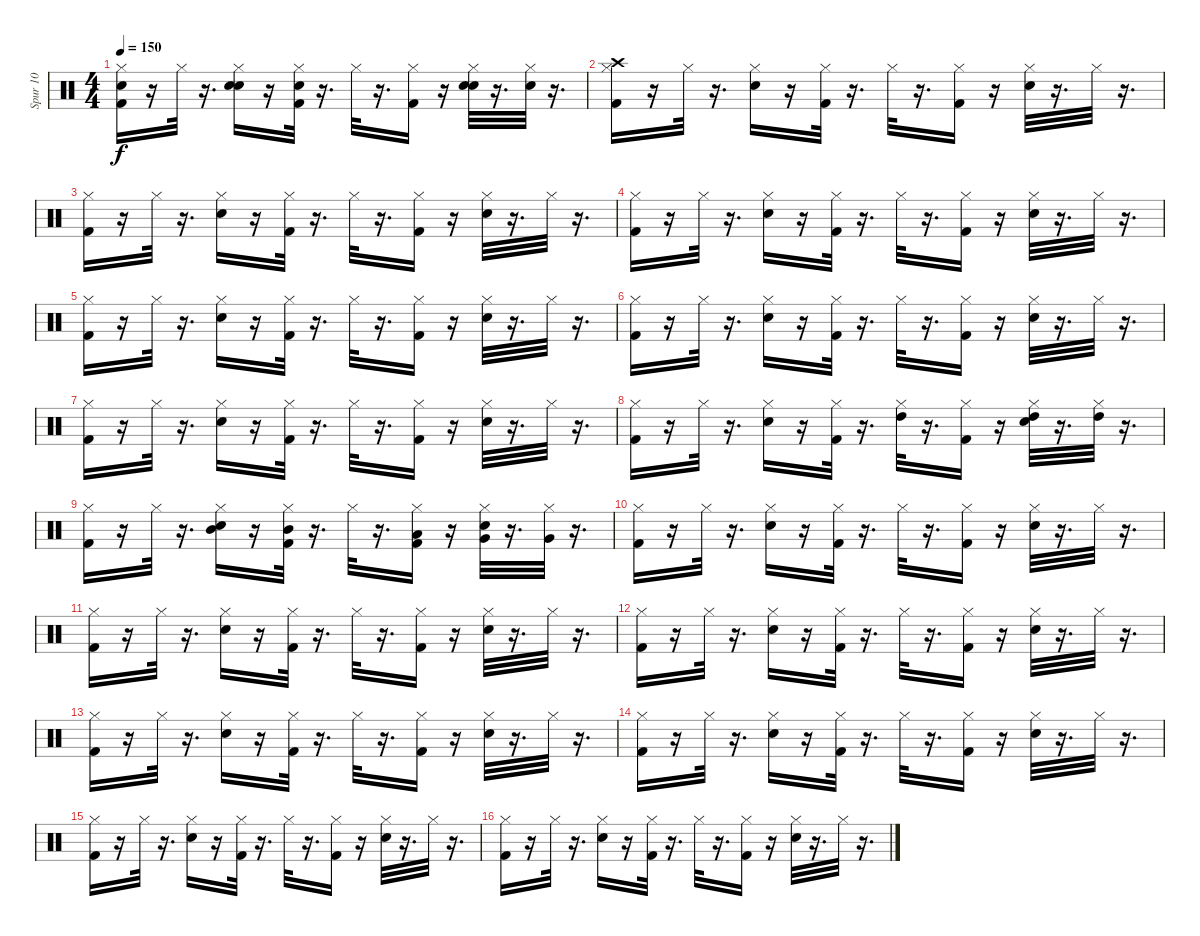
\track ("Spur 10" "Spur 10") {instrument percussion}
\staff {score}
\articulation defaults
\ts (4 4)
\tempo 150
\clef neutral
\ks c
("Hi-Hat (closed)" "Kick (hit) 2" "Hand Clap (hit)").16{dy f} r.16 "Hi-Hat (closed)".32 r.16{d} ("Electric Snare (hit)" "Hand Clap (hit)" "Hi-Hat (closed)").16 r.16 ("Kick (hit) 2" "Hi-Hat (closed)" "Hand Clap (hit)").32 r.16{d} "Hi-Hat (closed)".32 r.16{d} ("Kick (hit) 2" "Hi-Hat (closed)").16 r.16 ("Electric Snare (hit)" "Hi-Hat (closed)" "Hand Clap (hit)").32 r.16{d} ("Hi-Hat (closed)" "Hand Clap (hit)").32 r.16{d} |
("Crash high (hit)" "Hi-Hat (closed)" "Kick (hit) 2").16 r.16 "Hi-Hat (closed)".32 r.16{d} ("Electric Snare (hit)" "Hi-Hat (closed)").16 r.16 ("Hi-Hat (closed)" "Kick (hit) 2").32 r.16{d} "Hi-Hat (closed)".32 r.16{d} ("Kick (hit) 2" "Hi-Hat (closed)").16 r.16 ("Electric Snare (hit)" "Hi-Hat (closed)").32 r.16{d} "Hi-Hat (closed)".32 r.16{d} |
("Kick (hit) 2" "Hi-Hat (closed)").16 r.16 "Hi-Hat (closed)".32 r.16{d} ("Electric Snare (hit)" "Hi-Hat (closed)").16 r.16 ("Kick (hit) 2" "Hi-Hat (closed)").32 r.16{d} "Hi-Hat (closed)".32 r.16{d} ("Kick (hit) 2" "Hi-Hat (closed)").16 r.16 ("Electric Snare (hit)" "Hi-Hat (closed)").32 r.16{d} "Hi-Hat (closed)".32 r.16{d} |
("Kick (hit) 2" "Hi-Hat (closed)").16 r.16 "Hi-Hat (closed)".32 r.16{d} ("Electric Snare (hit)" "Hi-Hat (closed)").16 r.16 ("Kick (hit) 2" "Hi-Hat (closed)").32 r.16{d} "Hi-Hat (closed)".32 r.16{d} ("Kick (hit) 2" "Hi-Hat (closed)").16 r.16 ("Electric Snare (hit)" "Hi-Hat (closed)").32 r.16{d} "Hi-Hat (closed)".32 r.16{d} |
("Kick (hit) 2" "Hi-Hat (closed)").16 r.16 "Hi-Hat (closed)".32 r.16{d} ("Electric Snare (hit)" "Hi-Hat (closed)").16 r.16 ("Kick (hit) 2" "Hi-Hat (closed)").32 r.16{d} "Hi-Hat (closed)".32 r.16{d} ("Kick (hit) 2" "Hi-Hat (closed)").16 r.16 ("Electric Snare (hit)" "Hi-Hat (closed)").32 r.16{d} "Hi-Hat (closed)".32 r.16{d} |
("Hi-Hat (closed)" "Kick (hit) 2").16 r.16 "Hi-Hat (closed)".32 r.16{d} ("Hi-Hat (closed)" "Electric Snare (hit)").16 r.16 ("Hi-Hat (closed)" "Kick (hit) 2").32 r.16{d} "Hi-Hat (closed)".32 r.16{d} ("Kick (hit) 2" "Hi-Hat (closed)").16 r.16 ("Electric Snare (hit)" "Hi-Hat (closed)").32 r.16{d} "Hi-Hat (closed)".32 r.16{d} |
("Kick (hit) 2" "Hi-Hat (closed)").16 r.16 "Hi-Hat (closed)".32 r.16{d} ("Electric Snare (hit)" "Hi-Hat (closed)").16 r.16 ("Kick (hit) 2" "Hi-Hat (closed)").32 r.16{d} "Hi-Hat (closed)".32 r.16{d} ("Kick (hit) 2" "Hi-Hat (closed)").16 r.16 ("Electric Snare (hit)" "Hi-Hat (closed)").32 r.16{d} "Hi-Hat (closed)".32 r.16{d} |
("Kick (hit) 2" "Hi-Hat (closed)").16 r.16 "Hi-Hat (closed)".32 r.16{d} ("Electric Snare (hit)" "Hi-Hat (closed)").16 r.16 ("Kick (hit) 2" "Hi-Hat (closed)").32 r.16{d} ("Hi-Hat (closed)" "High Tom (hit)").32 r.16{d} ("Kick (hit) 2" "Hi-Hat (closed)").16 r.16 ("Electric Snare (hit)" "High Tom (hit)" "Hi-Hat (closed)").32 r.16{d} ("High Tom (hit)" "Hi-Hat (closed)").32 r.16{d} |
("Kick (hit) 2" "Hi-Hat (closed)").16 r.16 "Hi-Hat (closed)".32 r.16{d} ("Electric Snare (hit)" "Hi-Hat (closed)" "Mid Tom (hit)").16 r.16 ("Kick (hit) 2" "Hi-Hat (closed)" "Mid Tom (hit)").32 r.16{d} "Hi-Hat (closed)".32 r.16{d} ("Kick (hit) 2" "Hi-Hat (closed)" "Low Tom (hit)").16 r.16 ("Electric Snare (hit)" "Very Low Tom (hit)" "Hi-Hat (closed)").32 r.16{d} ("Very Low Tom (hit)" "Hi-Hat (closed)").32 r.16{d} |
("Hi-Hat (closed)" "Kick (hit) 2").16 r.16 "Hi-Hat (closed)".32 r.16{d} ("Electric Snare (hit)" "Hi-Hat (closed)").16 r.16 ("Hi-Hat (closed)" "Kick (hit) 2").32 r.16{d} "Hi-Hat (closed)".32 r.16{d} ("Hi-Hat (closed)" "Kick (hit) 2").16 r.16 ("Hi-Hat (closed)" "Electric Snare (hit)").32 r.16{d} "Hi-Hat (closed)".32 r.16{d} |
("Kick (hit) 2" "Hi-Hat (closed)").16 r.16 "Hi-Hat (closed)".32 r.16{d} ("Electric Snare (hit)" "Hi-Hat (closed)").16 r.16 ("Kick (hit) 2" "Hi-Hat (closed)").32 r.16{d} "Hi-Hat (closed)".32 r.16{d} ("Kick (hit) 2" "Hi-Hat (closed)").16 r.16 ("Electric Snare (hit)" "Hi-Hat (closed)").32 r.16{d} "Hi-Hat (closed)".32 r.16{d} |
("Kick (hit) 2" "Hi-Hat (closed)").16 r.16 "Hi-Hat (closed)".32 r.16{d} ("Electric Snare (hit)" "Hi-Hat (closed)").16 r.16 ("Kick (hit) 2" "Hi-Hat (closed)").32 r.16{d} "Hi-Hat (closed)".32 r.16{d} ("Kick (hit) 2" "Hi-Hat (closed)").16 r.16 ("Electric Snare (hit)" "Hi-Hat (closed)").32 r.16{d} "Hi-Hat (closed)".32 r.16{d} |
("Kick (hit) 2" "Hi-Hat (closed)").16 r.16 "Hi-Hat (closed)".32 r.16{d} ("Electric Snare (hit)" "Hi-Hat (closed)").16 r.16 ("Kick (hit) 2" "Hi-Hat (closed)").32 r.16{d} "Hi-Hat (closed)".32 r.16{d} ("Kick (hit) 2" "Hi-Hat (closed)").16 r.16 ("Electric Snare (hit)" "Hi-Hat (closed)").32 r.16{d} "Hi-Hat (closed)".32 r.16{d} |
("Hi-Hat (closed)" "Kick (hit) 2").16 r.16 "Hi-Hat (closed)".32 r.16{d} ("Electric Snare (hit)" "Hi-Hat (closed)").16 r.16 ("Hi-Hat (closed)" "Kick (hit) 2").32 r.16{d} "Hi-Hat (closed)".32 r.16{d} ("Hi-Hat (closed)" "Kick (hit) 2").16 r.16 ("Electric Snare (hit)" "Hi-Hat (closed)").32 r.16{d} "Hi-Hat (closed)".32 r.16{d} |
("Hi-Hat (closed)" "Kick (hit) 2").16 r.16 "Hi-Hat (closed)".32 r.16{d} ("Electric Snare (hit)" "Hi-Hat (closed)").16 r.16 ("Kick (hit) 2" "Hi-Hat (closed)").32 r.16{d} "Hi-Hat (closed)".32 r.16{d} ("Kick (hit) 2" "Hi-Hat (closed)").16 r.16 ("Electric Snare (hit)" "Hi-Hat (closed)").32 r.16{d} "Hi-Hat (closed)".32 r.16{d} |
("Kick (hit) 2" "Hi-Hat (closed)").16 r.16 "Hi-Hat (closed)".32 r.16{d} ("Electric Snare (hit)" "Hi-Hat (closed)").16 r.16 ("Kick (hit) 2" "Hi-Hat (closed)").32 r.16{d} "Hi-Hat (closed)".32 r.16{d} ("Kick (hit) 2" "Hi-Hat (closed)").16 r.16 ("Electric Snare (hit)" "Hi-Hat (closed)").32 r.16{d} "Hi-Hat (closed)".32 r.16{d}
